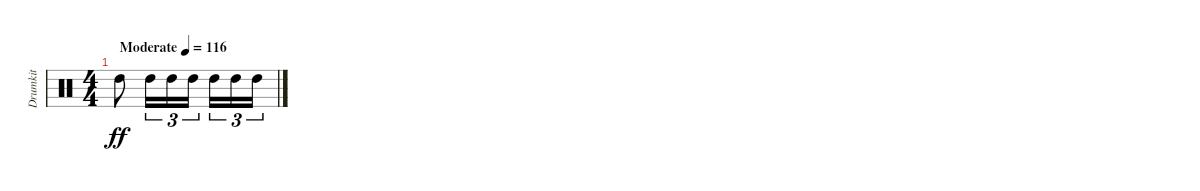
\track ("Drumkit" "Drumkit") {instrument percussion}
\staff {score}
\articulation defaults
\ts (4 4)
\tempo (116 "Moderate")
\clef neutral
\ks c "High Tom (hit)".8{dy ff} "High Tom (hit)".16{tu (3 2)} "High Tom (hit)".16{tu (3 2)} "High Tom (hit)".16{tu (3 2)} "High Tom (hit)".16{tu (3 2)} "High Tom (hit)".16{tu (3 2)} "High Tom (hit)".16{tu (3 2)}
